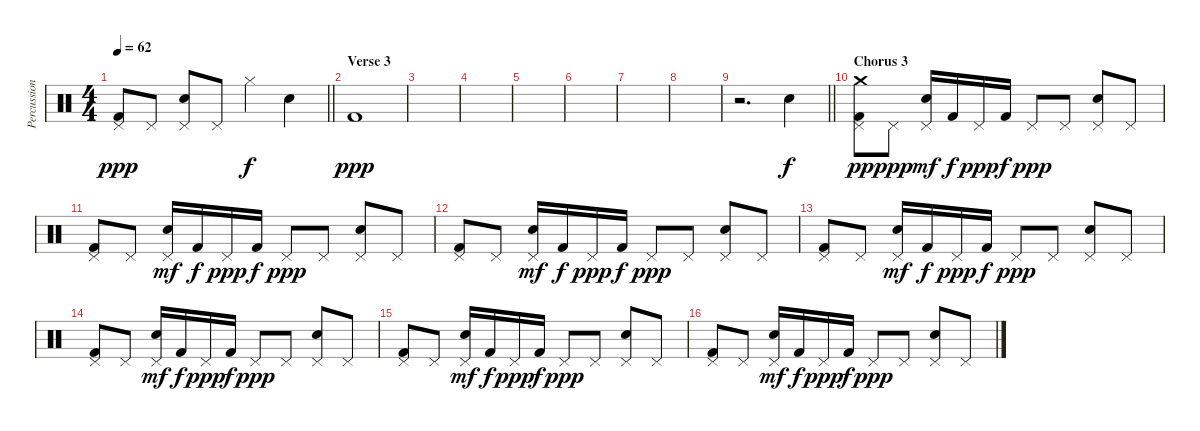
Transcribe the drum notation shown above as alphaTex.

\track ("Percussion" "Percussion") {instrument percussion}
\staff {score}
\articulation defaults
\ts (4 4)
\tempo 62
\clef neutral
\barLineRight lightlight
\ks c
("Pedal Hi-Hat (hit)" "Kick (hit) 2").8{dy ppp} "Pedal Hi-Hat (hit)".8 ("Pedal Hi-Hat (hit)" "Electric Snare (hit)").8 "Pedal Hi-Hat (hit)".8 "Hi-Hat (closed)".4{dy f} "Electric Snare (hit)".4 |
\section ("" "Verse 3")
"Kick (hit) 2".1{dy ppp} |
|
|
|
|
|
|
\barLineRight lightlight
r.2{d} "Electric Snare (hit)".4{dy f} |
\section ("" "Chorus 3")
("Crash medium (hit)" "Pedal Hi-Hat (hit)" "Kick (hit) 2").8{dy pp} "Pedal Hi-Hat (hit)".8{dy ppp} ("Pedal Hi-Hat (hit)" "Electric Snare (hit)").16{dy mf} "Kick (hit) 2".16{dy f} "Pedal Hi-Hat (hit)".16{dy ppp} "Kick (hit) 2".16{dy f} "Pedal Hi-Hat (hit)".8{dy ppp} "Pedal Hi-Hat (hit)".8 ("Pedal Hi-Hat (hit)" "Electric Snare (hit)").8 "Pedal Hi-Hat (hit)".8 |
("Pedal Hi-Hat (hit)" "Kick (hit) 2").8 "Pedal Hi-Hat (hit)".8 ("Pedal Hi-Hat (hit)" "Electric Snare (hit)").16{dy mf} "Kick (hit) 2".16{dy f} "Pedal Hi-Hat (hit)".16{dy ppp} "Kick (hit) 2".16{dy f} "Pedal Hi-Hat (hit)".8{dy ppp} "Pedal Hi-Hat (hit)".8 ("Pedal Hi-Hat (hit)" "Electric Snare (hit)").8 "Pedal Hi-Hat (hit)".8 |
("Pedal Hi-Hat (hit)" "Kick (hit) 2").8 "Pedal Hi-Hat (hit)".8 ("Pedal Hi-Hat (hit)" "Electric Snare (hit)").16{dy mf} "Kick (hit) 2".16{dy f} "Pedal Hi-Hat (hit)".16{dy ppp} "Kick (hit) 2".16{dy f} "Pedal Hi-Hat (hit)".8{dy ppp} "Pedal Hi-Hat (hit)".8 ("Pedal Hi-Hat (hit)" "Electric Snare (hit)").8 "Pedal Hi-Hat (hit)".8 |
("Pedal Hi-Hat (hit)" "Kick (hit) 2").8 "Pedal Hi-Hat (hit)".8 ("Pedal Hi-Hat (hit)" "Electric Snare (hit)").16{dy mf} "Kick (hit) 2".16{dy f} "Pedal Hi-Hat (hit)".16{dy ppp} "Kick (hit) 2".16{dy f} "Pedal Hi-Hat (hit)".8{dy ppp} "Pedal Hi-Hat (hit)".8 ("Pedal Hi-Hat (hit)" "Electric Snare (hit)").8 "Pedal Hi-Hat (hit)".8 |
("Pedal Hi-Hat (hit)" "Kick (hit) 2").8 "Pedal Hi-Hat (hit)".8 ("Pedal Hi-Hat (hit)" "Electric Snare (hit)").16{dy mf} "Kick (hit) 2".16{dy f} "Pedal Hi-Hat (hit)".16{dy ppp} "Kick (hit) 2".16{dy f} "Pedal Hi-Hat (hit)".8{dy ppp} "Pedal Hi-Hat (hit)".8 ("Pedal Hi-Hat (hit)" "Electric Snare (hit)").8 "Pedal Hi-Hat (hit)".8 |
("Pedal Hi-Hat (hit)" "Kick (hit) 2").8 "Pedal Hi-Hat (hit)".8 ("Pedal Hi-Hat (hit)" "Electric Snare (hit)").16{dy mf} "Kick (hit) 2".16{dy f} "Pedal Hi-Hat (hit)".16{dy ppp} "Kick (hit) 2".16{dy f} "Pedal Hi-Hat (hit)".8{dy ppp} "Pedal Hi-Hat (hit)".8 ("Pedal Hi-Hat (hit)" "Electric Snare (hit)").8 "Pedal Hi-Hat (hit)".8 |
("Pedal Hi-Hat (hit)" "Kick (hit) 2").8 "Pedal Hi-Hat (hit)".8 ("Pedal Hi-Hat (hit)" "Electric Snare (hit)").16{dy mf} "Kick (hit) 2".16{dy f} "Pedal Hi-Hat (hit)".16{dy ppp} "Kick (hit) 2".16{dy f} "Pedal Hi-Hat (hit)".8{dy ppp} "Pedal Hi-Hat (hit)".8 ("Pedal Hi-Hat (hit)" "Electric Snare (hit)").8 "Pedal Hi-Hat (hit)".8
